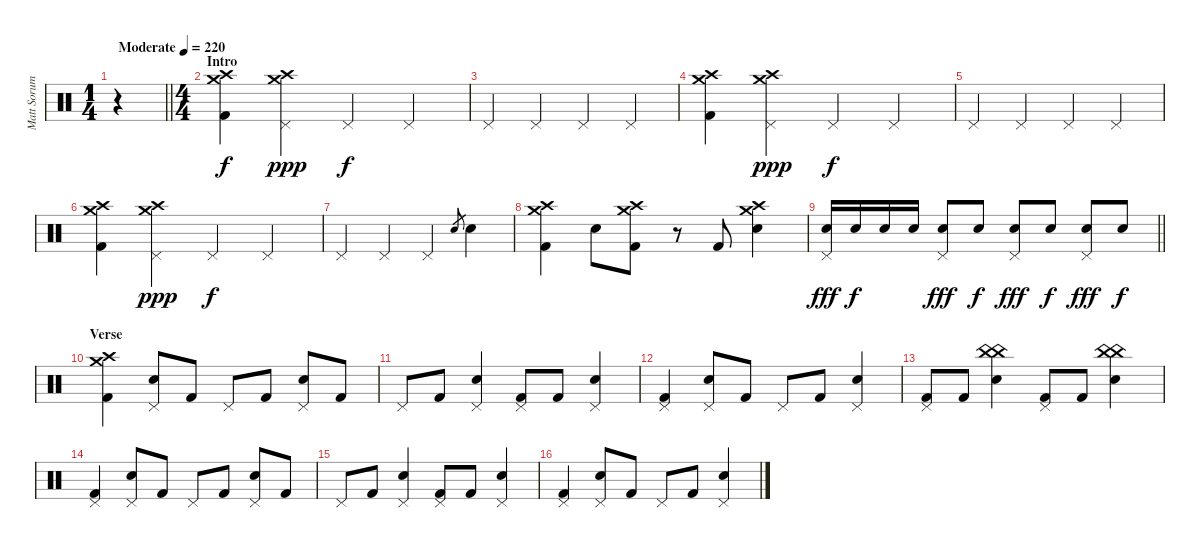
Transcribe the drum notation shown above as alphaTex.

\track ("Matt Sorum - Drums" "Matt Sorum") {instrument percussion}
\staff {score}
\articulation defaults
\ts (1 4)
\tempo (220 "Moderate")
\clef neutral
\barLineRight lightlight
\ks c
r.4{dy f} |
\ts (4 4)
\section ("" "Intro")
("Crash medium (hit)" "Crash high (hit)" "Kick (hit) 2").4 ("Crash medium (hit)" "Crash high (hit)" "Pedal Hi-Hat (hit)").4{dy ppp} "Pedal Hi-Hat (hit)".4{dy f} "Pedal Hi-Hat (hit)".4 |
"Pedal Hi-Hat (hit)".4 "Pedal Hi-Hat (hit)".4 "Pedal Hi-Hat (hit)".4 "Pedal Hi-Hat (hit)".4 |
("Crash medium (hit)" "Crash high (hit)" "Kick (hit) 2").4 ("Crash medium (hit)" "Crash high (hit)" "Pedal Hi-Hat (hit)").4{dy ppp} "Pedal Hi-Hat (hit)".4{dy f} "Pedal Hi-Hat (hit)".4 |
"Pedal Hi-Hat (hit)".4 "Pedal Hi-Hat (hit)".4 "Pedal Hi-Hat (hit)".4 "Pedal Hi-Hat (hit)".4 |
("Crash medium (hit)" "Crash high (hit)" "Kick (hit) 2").4 ("Crash medium (hit)" "Crash high (hit)" "Pedal Hi-Hat (hit)").4{dy ppp} "Pedal Hi-Hat (hit)".4{dy f} "Pedal Hi-Hat (hit)".4 |
"Pedal Hi-Hat (hit)".4 "Pedal Hi-Hat (hit)".4 "Pedal Hi-Hat (hit)".4 "Snare (hit) 2".8{gr} "Snare (hit) 2".4 |
("Crash medium (hit)" "Crash high (hit)" "Kick (hit) 2").4 "Snare (hit) 2".8 ("Crash medium (hit)" "Crash high (hit)" "Kick (hit) 2").8 r.8 "Kick (hit) 2".8 ("Crash medium (hit)" "Crash high (hit)" "Snare (hit) 2").4 |
\barLineRight lightlight
("Pedal Hi-Hat (hit)" "Snare (hit) 2").16{dy fff} "Snare (hit) 2".16{dy f} "Snare (hit) 2".16 "Snare (hit) 2".16 ("Pedal Hi-Hat (hit)" "Snare (hit) 2").8{dy fff} "Snare (hit) 2".8{dy f} ("Pedal Hi-Hat (hit)" "Snare (hit) 2").8{dy fff} "Snare (hit) 2".8{dy f} ("Pedal Hi-Hat (hit)" "Snare (hit) 2").8{dy fff} "Snare (hit) 2".8{dy f} |
\section ("" "Verse")
("Crash medium (hit)" "Crash high (hit)" "Kick (hit) 2").4 ("Pedal Hi-Hat (hit)" "Snare (hit) 2").8 "Kick (hit) 2".8 "Pedal Hi-Hat (hit)".8 "Kick (hit) 2".8 ("Pedal Hi-Hat (hit)" "Snare (hit) 2").8 "Kick (hit) 2".8 |
"Pedal Hi-Hat (hit)".8 "Kick (hit) 2".8 ("Pedal Hi-Hat (hit)" "Snare (hit) 2").4 ("Pedal Hi-Hat (hit)" "Kick (hit) 2").8 "Kick (hit) 2".8 ("Pedal Hi-Hat (hit)" "Snare (hit) 2").4 |
("Pedal Hi-Hat (hit)" "Kick (hit) 2").4 ("Pedal Hi-Hat (hit)" "Snare (hit) 2").8 "Kick (hit) 2".8 "Pedal Hi-Hat (hit)".8 "Kick (hit) 2".8 ("Pedal Hi-Hat (hit)" "Snare (hit) 2").4 |
("Pedal Hi-Hat (hit)" "Kick (hit) 2").8 "Kick (hit) 2".8 ("China (hit)" "China (hit)" "Snare (hit) 2").4 ("Pedal Hi-Hat (hit)" "Kick (hit) 2").8 "Kick (hit) 2".8 ("China (hit)" "China (hit)" "Snare (hit) 2").4 |
("Pedal Hi-Hat (hit)" "Kick (hit) 2").4 ("Pedal Hi-Hat (hit)" "Snare (hit) 2").8 "Kick (hit) 2".8 "Pedal Hi-Hat (hit)".8 "Kick (hit) 2".8 ("Pedal Hi-Hat (hit)" "Snare (hit) 2").8 "Kick (hit) 2".8 |
"Pedal Hi-Hat (hit)".8 "Kick (hit) 2".8 ("Pedal Hi-Hat (hit)" "Snare (hit) 2").4 ("Pedal Hi-Hat (hit)" "Kick (hit) 2").8 "Kick (hit) 2".8 ("Pedal Hi-Hat (hit)" "Snare (hit) 2").4 |
("Pedal Hi-Hat (hit)" "Kick (hit) 2").4 ("Pedal Hi-Hat (hit)" "Snare (hit) 2").8 "Kick (hit) 2".8 "Pedal Hi-Hat (hit)".8 "Kick (hit) 2".8 ("Pedal Hi-Hat (hit)" "Snare (hit) 2").4
